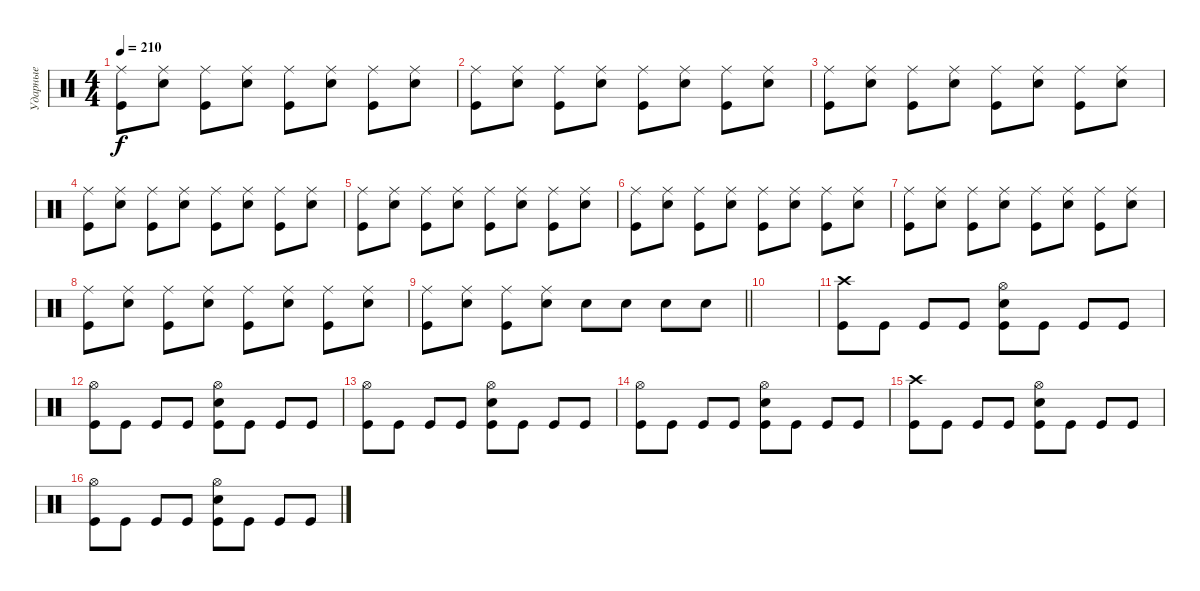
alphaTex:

\track ("Ударные" "Ударные") {instrument percussion}
\staff {score}
\articulation defaults
\ts (4 4)
\tempo 210
\clef neutral
\ks c
("Ride (middle)" "Kick (hit)").8{dy f} ("Ride (middle)" "Snare (hit) 2").8 ("Ride (middle)" "Kick (hit)").8 ("Ride (middle)" "Snare (hit) 2").8 ("Ride (middle)" "Kick (hit)").8 ("Ride (middle)" "Snare (hit) 2").8 ("Ride (middle)" "Kick (hit)").8 ("Ride (middle)" "Snare (hit) 2").8 |
("Ride (middle)" "Kick (hit)").8 ("Ride (middle)" "Snare (hit) 2").8 ("Ride (middle)" "Kick (hit)").8 ("Ride (middle)" "Snare (hit) 2").8 ("Ride (middle)" "Kick (hit)").8 ("Ride (middle)" "Snare (hit) 2").8 ("Ride (middle)" "Kick (hit)").8 ("Ride (middle)" "Snare (hit) 2").8 |
("Ride (middle)" "Kick (hit)").8 ("Ride (middle)" "Snare (hit) 2").8 ("Ride (middle)" "Kick (hit)").8 ("Ride (middle)" "Snare (hit) 2").8 ("Ride (middle)" "Kick (hit)").8 ("Ride (middle)" "Snare (hit) 2").8 ("Ride (middle)" "Kick (hit)").8 ("Ride (middle)" "Snare (hit) 2").8 |
("Ride (middle)" "Kick (hit)").8 ("Ride (middle)" "Snare (hit) 2").8 ("Ride (middle)" "Kick (hit)").8 ("Ride (middle)" "Snare (hit) 2").8 ("Ride (middle)" "Kick (hit)").8 ("Ride (middle)" "Snare (hit) 2").8 ("Ride (middle)" "Kick (hit)").8 ("Ride (middle)" "Snare (hit) 2").8 |
("Ride (middle)" "Kick (hit)").8 ("Ride (middle)" "Snare (hit) 2").8 ("Ride (middle)" "Kick (hit)").8 ("Ride (middle)" "Snare (hit) 2").8 ("Ride (middle)" "Kick (hit)").8 ("Ride (middle)" "Snare (hit) 2").8 ("Ride (middle)" "Kick (hit)").8 ("Ride (middle)" "Snare (hit) 2").8 |
("Ride (middle)" "Kick (hit)").8 ("Ride (middle)" "Snare (hit) 2").8 ("Ride (middle)" "Kick (hit)").8 ("Ride (middle)" "Snare (hit) 2").8 ("Ride (middle)" "Kick (hit)").8 ("Ride (middle)" "Snare (hit) 2").8 ("Ride (middle)" "Kick (hit)").8 ("Ride (middle)" "Snare (hit) 2").8 |
("Ride (middle)" "Kick (hit)").8 ("Ride (middle)" "Snare (hit) 2").8 ("Ride (middle)" "Kick (hit)").8 ("Ride (middle)" "Snare (hit) 2").8 ("Ride (middle)" "Kick (hit)").8 ("Ride (middle)" "Snare (hit) 2").8 ("Ride (middle)" "Kick (hit)").8 ("Ride (middle)" "Snare (hit) 2").8 |
("Ride (middle)" "Kick (hit)").8 ("Ride (middle)" "Snare (hit) 2").8 ("Ride (middle)" "Kick (hit)").8 ("Ride (middle)" "Snare (hit) 2").8 ("Ride (middle)" "Kick (hit)").8 ("Ride (middle)" "Snare (hit) 2").8 ("Ride (middle)" "Kick (hit)").8 ("Ride (middle)" "Snare (hit) 2").8 |
\barLineRight lightlight
("Ride (middle)" "Kick (hit)").8 ("Ride (middle)" "Snare (hit) 2").8 ("Ride (middle)" "Kick (hit)").8 ("Ride (middle)" "Snare (hit) 2").8 "Snare (hit) 2".8 "Snare (hit) 2".8 "Snare (hit) 2".8 "Snare (hit) 2".8 |
|
("Crash high (hit)" "Kick (hit)").8 "Kick (hit)".8 "Kick (hit)".8 "Kick (hit)".8 ("Hi-Hat (open)" "Snare (hit) 2" "Kick (hit)").8 "Kick (hit)".8 "Kick (hit)".8 "Kick (hit)".8 |
("Hi-Hat (open)" "Kick (hit)").8 "Kick (hit)".8 "Kick (hit)".8 "Kick (hit)".8 ("Hi-Hat (open)" "Snare (hit) 2" "Kick (hit)").8 "Kick (hit)".8 "Kick (hit)".8 "Kick (hit)".8 |
("Hi-Hat (open)" "Kick (hit)").8 "Kick (hit)".8 "Kick (hit)".8 "Kick (hit)".8 ("Hi-Hat (open)" "Snare (hit) 2" "Kick (hit)").8 "Kick (hit)".8 "Kick (hit)".8 "Kick (hit)".8 |
("Hi-Hat (open)" "Kick (hit)").8 "Kick (hit)".8 "Kick (hit)".8 "Kick (hit)".8 ("Hi-Hat (open)" "Snare (hit) 2" "Kick (hit)").8 "Kick (hit)".8 "Kick (hit)".8 "Kick (hit)".8 |
("Crash high (hit)" "Kick (hit)").8 "Kick (hit)".8 "Kick (hit)".8 "Kick (hit)".8 ("Hi-Hat (open)" "Snare (hit) 2" "Kick (hit)").8 "Kick (hit)".8 "Kick (hit)".8 "Kick (hit)".8 |
("Hi-Hat (open)" "Kick (hit)").8 "Kick (hit)".8 "Kick (hit)".8 "Kick (hit)".8 ("Hi-Hat (open)" "Snare (hit) 2" "Kick (hit)").8 "Kick (hit)".8 "Kick (hit)".8 "Kick (hit)".8
